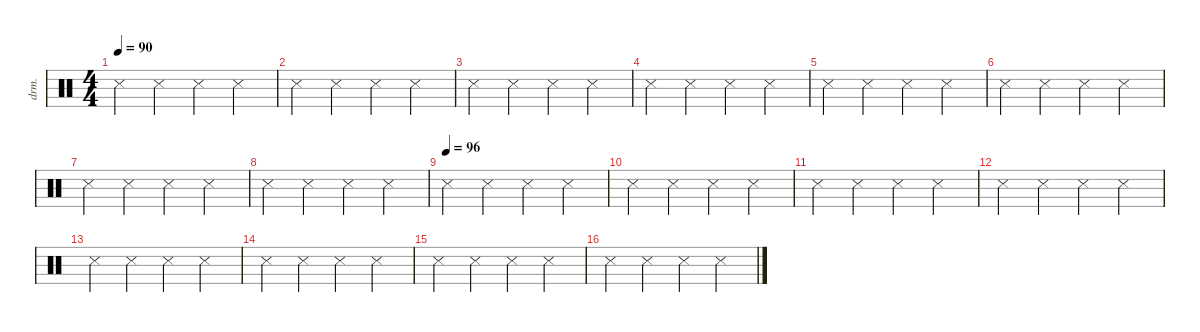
\defaultSystemsLayout 4
\hideDynamics
\bracketExtendMode nobrackets
\otherSystemsTrackNameOrientation horizontal
\track ("Drumkit" "drm.") {instrument percussion}
\staff {score}
\articulation defaults
\ts (4 4)
\tempo 90
\clef neutral
\ks c "Metronome (hit)".4{dy mf beam Down} "Metronome (hit)".4{beam Down} "Metronome (hit)".4{beam Down} "Metronome (hit)".4{beam Down}
|
"Metronome (hit)".4{beam Down} "Metronome (hit)".4{beam Down} "Metronome (hit)".4{beam Down} "Metronome (hit)".4{beam Down} |
"Metronome (hit)".4{beam Down} "Metronome (hit)".4{beam Down} "Metronome (hit)".4{beam Down} "Metronome (hit)".4{beam Down} |
"Metronome (hit)".4{beam Down} "Metronome (hit)".4{beam Down} "Metronome (hit)".4{beam Down} "Metronome (hit)".4{beam Down} |
"Metronome (hit)".4{beam Down} "Metronome (hit)".4{beam Down} "Metronome (hit)".4{beam Down} "Metronome (hit)".4{beam Down} |
"Metronome (hit)".4{beam Down} "Metronome (hit)".4{beam Down} "Metronome (hit)".4{beam Down} "Metronome (hit)".4{beam Down} |
"Metronome (hit)".4{beam Down} "Metronome (hit)".4{beam Down} "Metronome (hit)".4{beam Down} "Metronome (hit)".4{beam Down} |
"Metronome (hit)".4{beam Down} "Metronome (hit)".4{beam Down} "Metronome (hit)".4{beam Down} "Metronome (hit)".4{beam Down} |
\tempo (96)
"Metronome (hit)".4{beam Down} "Metronome (hit)".4{beam Down} "Metronome (hit)".4{beam Down} "Metronome (hit)".4{beam Down} |
"Metronome (hit)".4{beam Down} "Metronome (hit)".4{beam Down} "Metronome (hit)".4{beam Down} "Metronome (hit)".4{beam Down} |
"Metronome (hit)".4{beam Down} "Metronome (hit)".4{beam Down} "Metronome (hit)".4{beam Down} "Metronome (hit)".4{beam Down} |
"Metronome (hit)".4{beam Down} "Metronome (hit)".4{beam Down} "Metronome (hit)".4{beam Down} "Metronome (hit)".4{beam Down} |
"Metronome (hit)".4{beam Down} "Metronome (hit)".4{beam Down} "Metronome (hit)".4{beam Down} "Metronome (hit)".4{beam Down} |
"Metronome (hit)".4{beam Down} "Metronome (hit)".4{beam Down} "Metronome (hit)".4{beam Down} "Metronome (hit)".4{beam Down} |
"Metronome (hit)".4{beam Down} "Metronome (hit)".4{beam Down} "Metronome (hit)".4{beam Down} "Metronome (hit)".4{beam Down} |
"Metronome (hit)".4{beam Down} "Metronome (hit)".4{beam Down} "Metronome (hit)".4{beam Down} "Metronome (hit)".4{beam Down}
